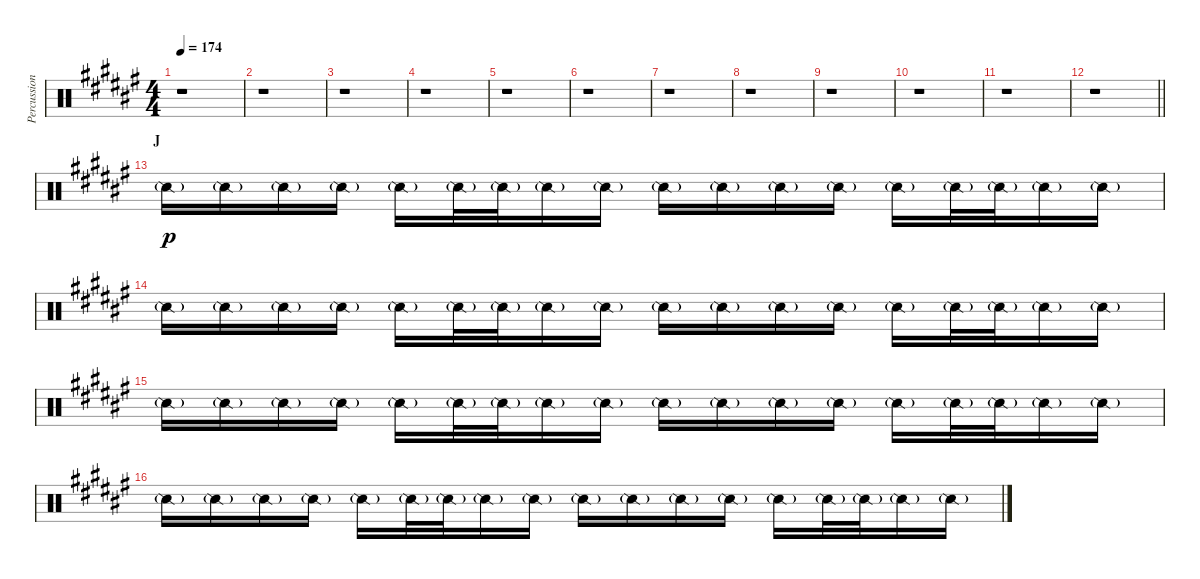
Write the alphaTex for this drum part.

\track ("Percussion I" "Percussion") {instrument percussion}
\staff {score}
\articulation defaults
\ts (4 4)
\tempo 174
\clef neutral
\ks f#
r.1{dy p} |
r.1 |
r.1 |
r.1 |
r.1 |
r.1 |
r.1 |
r.1 |
r.1 |
r.1 |
r.1 |
\barLineRight lightlight
r.1 |
\section ("" "J")
"Snare (side stick) 2"{g}.16 "Snare (side stick) 2"{g}.16 "Snare (side stick) 2"{g}.16 "Snare (side stick) 2"{g}.16 "Snare (side stick) 2"{g}.16 "Snare (side stick) 2"{g}.32 "Snare (side stick) 2"{g}.32 "Snare (side stick) 2"{g}.16 "Snare (side stick) 2"{g}.16 "Snare (side stick) 2"{g}.16 "Snare (side stick) 2"{g}.16 "Snare (side stick) 2"{g}.16 "Snare (side stick) 2"{g}.16 "Snare (side stick) 2"{g}.16 "Snare (side stick) 2"{g}.32 "Snare (side stick) 2"{g}.32 "Snare (side stick) 2"{g}.16 "Snare (side stick) 2"{g}.16 |
"Snare (side stick) 2"{g}.16 "Snare (side stick) 2"{g}.16 "Snare (side stick) 2"{g}.16 "Snare (side stick) 2"{g}.16 "Snare (side stick) 2"{g}.16 "Snare (side stick) 2"{g}.32 "Snare (side stick) 2"{g}.32 "Snare (side stick) 2"{g}.16 "Snare (side stick) 2"{g}.16 "Snare (side stick) 2"{g}.16 "Snare (side stick) 2"{g}.16 "Snare (side stick) 2"{g}.16 "Snare (side stick) 2"{g}.16 "Snare (side stick) 2"{g}.16 "Snare (side stick) 2"{g}.32 "Snare (side stick) 2"{g}.32 "Snare (side stick) 2"{g}.16 "Snare (side stick) 2"{g}.16 |
"Snare (side stick) 2"{g}.16 "Snare (side stick) 2"{g}.16 "Snare (side stick) 2"{g}.16 "Snare (side stick) 2"{g}.16 "Snare (side stick) 2"{g}.16 "Snare (side stick) 2"{g}.32 "Snare (side stick) 2"{g}.32 "Snare (side stick) 2"{g}.16 "Snare (side stick) 2"{g}.16 "Snare (side stick) 2"{g}.16 "Snare (side stick) 2"{g}.16 "Snare (side stick) 2"{g}.16 "Snare (side stick) 2"{g}.16 "Snare (side stick) 2"{g}.16 "Snare (side stick) 2"{g}.32 "Snare (side stick) 2"{g}.32 "Snare (side stick) 2"{g}.16 "Snare (side stick) 2"{g}.16 |
"Snare (side stick) 2"{g}.16 "Snare (side stick) 2"{g}.16 "Snare (side stick) 2"{g}.16 "Snare (side stick) 2"{g}.16 "Snare (side stick) 2"{g}.16 "Snare (side stick) 2"{g}.32 "Snare (side stick) 2"{g}.32 "Snare (side stick) 2"{g}.16 "Snare (side stick) 2"{g}.16 "Snare (side stick) 2"{g}.16 "Snare (side stick) 2"{g}.16 "Snare (side stick) 2"{g}.16 "Snare (side stick) 2"{g}.16 "Snare (side stick) 2"{g}.16 "Snare (side stick) 2"{g}.32 "Snare (side stick) 2"{g}.32 "Snare (side stick) 2"{g}.16 "Snare (side stick) 2"{g}.16
